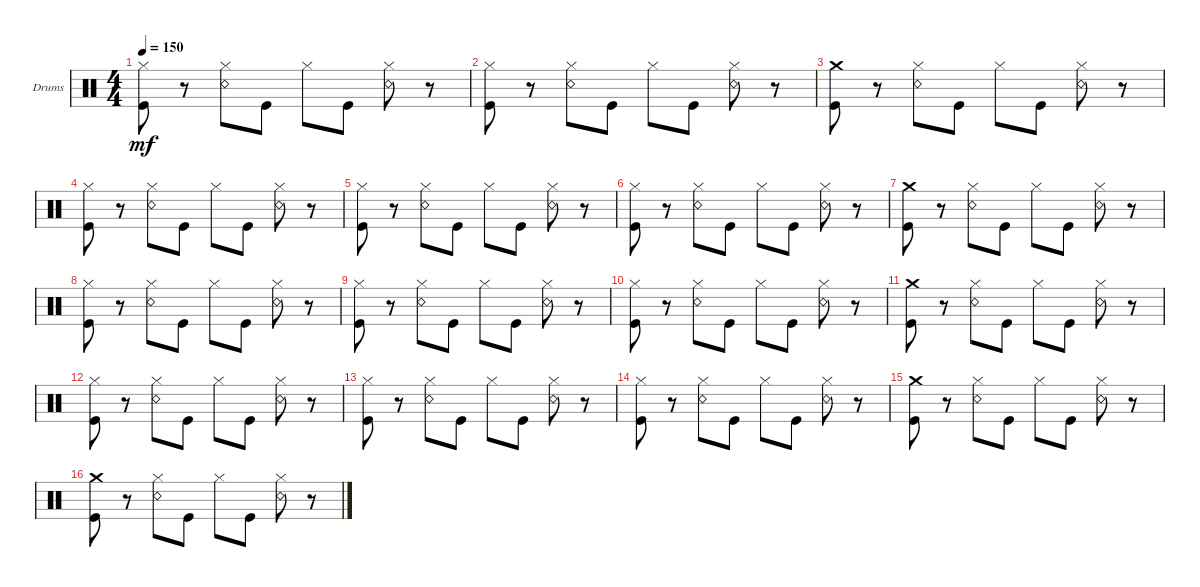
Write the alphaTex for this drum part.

\defaultSystemsLayout 4
\bracketExtendMode groupsimilarinstruments
\firstSystemTrackNameOrientation horizontal
\otherSystemsTrackNameOrientation horizontal
\track ("Drumkit" "Drums") {instrument percussion}
\staff {score}
\articulation defaults
\ts (4 4)
\tempo 150
\clef neutral
\ks c
("Kick (hit)" "Hi-Hat (closed)").8{dy mf} r.8 ("Hi-Hat (closed)" "Snare (rim shot)").8 "Kick (hit)".8 "Hi-Hat (closed)".8 "Kick (hit)".8 ("Hi-Hat (closed)" "Snare (rim shot)").8 r.8 |
("Kick (hit)" "Hi-Hat (closed)").8 r.8 ("Hi-Hat (closed)" "Snare (rim shot)").8 "Kick (hit)".8 "Hi-Hat (closed)".8 "Kick (hit)".8 ("Hi-Hat (closed)" "Snare (rim shot)").8 r.8 |
("Kick (hit)" "Crash medium (hit)").8 r.8 ("Hi-Hat (closed)" "Snare (rim shot)").8 "Kick (hit)".8 "Hi-Hat (closed)".8 "Kick (hit)".8 ("Hi-Hat (closed)" "Snare (rim shot)").8 r.8 |
("Kick (hit)" "Hi-Hat (closed)").8 r.8 ("Hi-Hat (closed)" "Snare (rim shot)").8 "Kick (hit)".8 "Hi-Hat (closed)".8 "Kick (hit)".8 ("Hi-Hat (closed)" "Snare (rim shot)").8 r.8 |
("Kick (hit)" "Hi-Hat (closed)").8 r.8 ("Hi-Hat (closed)" "Snare (rim shot)").8 "Kick (hit)".8 "Hi-Hat (closed)".8 "Kick (hit)".8 ("Hi-Hat (closed)" "Snare (rim shot)").8 r.8 |
("Kick (hit)" "Hi-Hat (closed)").8 r.8 ("Hi-Hat (closed)" "Snare (rim shot)").8 "Kick (hit)".8 "Hi-Hat (closed)".8 "Kick (hit)".8 ("Hi-Hat (closed)" "Snare (rim shot)").8 r.8 |
("Kick (hit)" "Crash medium (hit)").8 r.8 ("Hi-Hat (closed)" "Snare (rim shot)").8 "Kick (hit)".8 "Hi-Hat (closed)".8 "Kick (hit)".8 ("Hi-Hat (closed)" "Snare (rim shot)").8 r.8 |
("Kick (hit)" "Hi-Hat (closed)").8 r.8 ("Hi-Hat (closed)" "Snare (rim shot)").8 "Kick (hit)".8 "Hi-Hat (closed)".8 "Kick (hit)".8 ("Hi-Hat (closed)" "Snare (rim shot)").8 r.8 |
("Kick (hit)" "Hi-Hat (closed)").8 r.8 ("Hi-Hat (closed)" "Snare (rim shot)").8 "Kick (hit)".8 "Hi-Hat (closed)".8 "Kick (hit)".8 ("Hi-Hat (closed)" "Snare (rim shot)").8 r.8 |
("Kick (hit)" "Hi-Hat (closed)").8 r.8 ("Hi-Hat (closed)" "Snare (rim shot)").8 "Kick (hit)".8 "Hi-Hat (closed)".8 "Kick (hit)".8 ("Hi-Hat (closed)" "Snare (rim shot)").8 r.8 |
("Kick (hit)" "Crash medium (hit)").8 r.8 ("Hi-Hat (closed)" "Snare (rim shot)").8 "Kick (hit)".8 "Hi-Hat (closed)".8 "Kick (hit)".8 ("Hi-Hat (closed)" "Snare (rim shot)").8 r.8 |
("Kick (hit)" "Hi-Hat (closed)").8 r.8 ("Hi-Hat (closed)" "Snare (rim shot)").8 "Kick (hit)".8 "Hi-Hat (closed)".8 "Kick (hit)".8 ("Hi-Hat (closed)" "Snare (rim shot)").8 r.8 |
("Kick (hit)" "Hi-Hat (closed)").8 r.8 ("Hi-Hat (closed)" "Snare (rim shot)").8 "Kick (hit)".8 "Hi-Hat (closed)".8 "Kick (hit)".8 ("Hi-Hat (closed)" "Snare (rim shot)").8 r.8 |
("Kick (hit)" "Hi-Hat (closed)").8 r.8 ("Hi-Hat (closed)" "Snare (rim shot)").8 "Kick (hit)".8 "Hi-Hat (closed)".8 "Kick (hit)".8 ("Hi-Hat (closed)" "Snare (rim shot)").8 r.8 |
("Kick (hit)" "Crash medium (hit)").8 r.8 ("Hi-Hat (closed)" "Snare (rim shot)").8 "Kick (hit)".8 "Hi-Hat (closed)".8 "Kick (hit)".8 ("Hi-Hat (closed)" "Snare (rim shot)").8 r.8 |
("Kick (hit)" "Crash medium (hit)").8 r.8 ("Hi-Hat (closed)" "Snare (rim shot)").8 "Kick (hit)".8 "Hi-Hat (closed)".8 "Kick (hit)".8 ("Hi-Hat (closed)" "Snare (rim shot)").8 r.8
